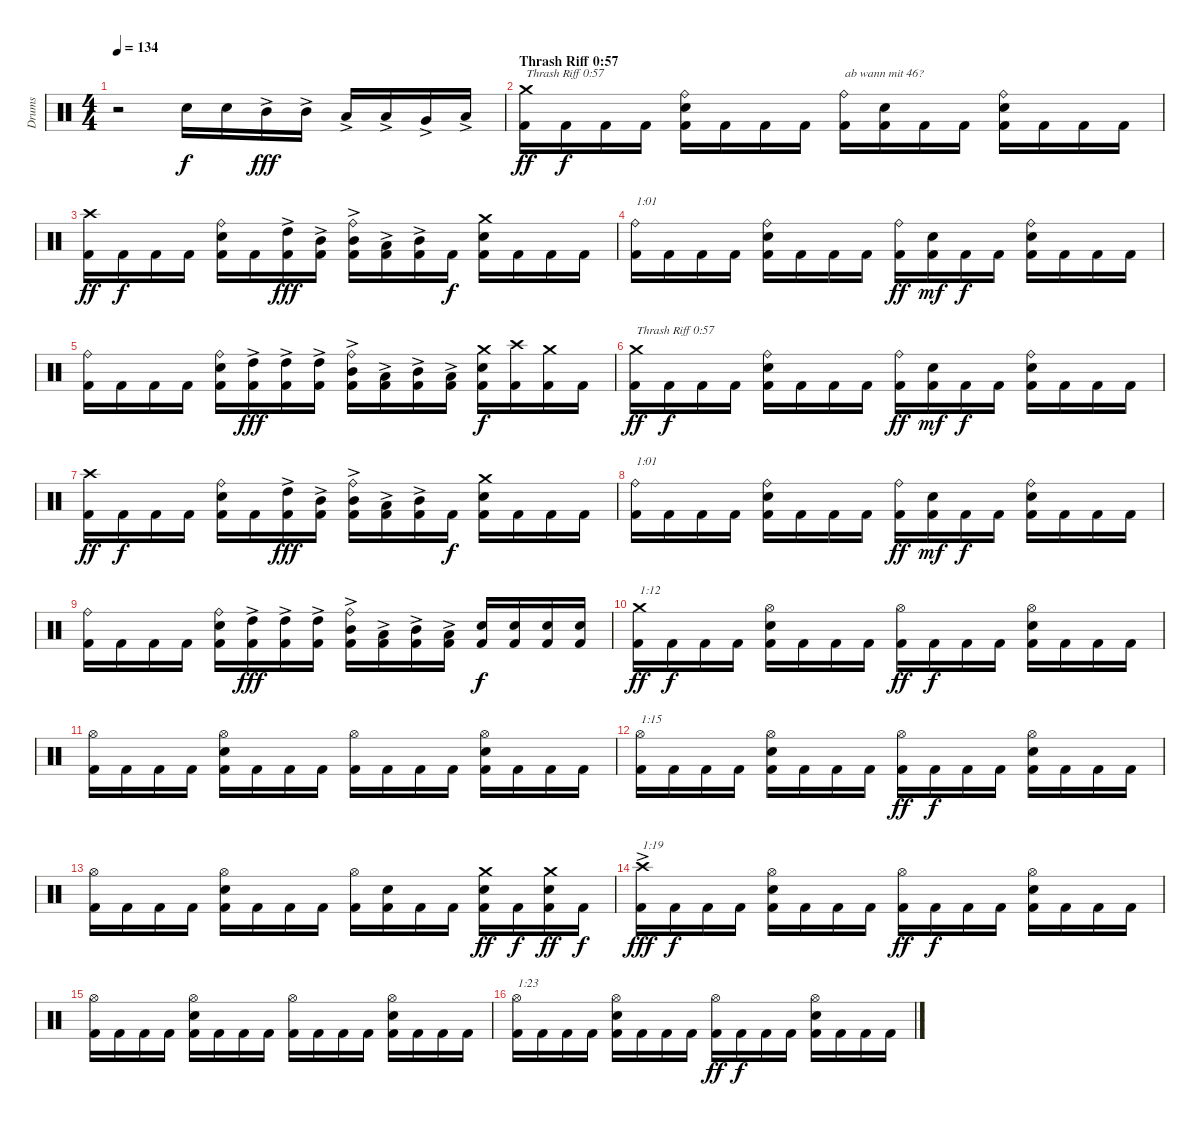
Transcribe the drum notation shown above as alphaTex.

\track ("Drums" "Drums") {instrument percussion}
\staff {score}
\articulation defaults
\ts (4 4)
\tempo 134
\clef neutral
\ks c
r.2{dy mf} "Electric Snare (hit)".16{dy f} "Electric Snare (hit)".16 "Mid Tom (hit)"{ac}.16{dy fff} "Mid Tom (hit)"{ac}.16 "Low Tom (hit)"{ac}.16 "Low Tom (hit)"{ac}.16 "Very Low Tom (hit)"{ac}.16 "Low Floor Tom (hit)"{ac}.16 |
\section ("" "Thrash Riff 0:57")
("Kick (hit) 2" "Crash medium (hit)").16{txt "Thrash Riff 0:57" dy ff} "Kick (hit) 2".16{dy f} "Kick (hit) 2".16 "Kick (hit) 2".16 ("Kick (hit) 2" "Electric Snare (hit)" "Ride (bell)").16 "Kick (hit) 2".16 "Kick (hit) 2".16 "Kick (hit) 2".16 ("Kick (hit) 2" "Ride (bell)").16{txt "ab wann mit 46?"} ("Kick (hit) 2" "Electric Snare (hit)").16 "Kick (hit) 2".16 "Kick (hit) 2".16 ("Kick (hit) 2" "Electric Snare (hit)" "Ride (bell)").16 "Kick (hit) 2".16 "Kick (hit) 2".16 "Kick (hit) 2".16 |
("Kick (hit) 2" "Crash high (hit)").16{dy ff} "Kick (hit) 2".16{dy f} "Kick (hit) 2".16 "Kick (hit) 2".16 ("Kick (hit) 2" "Electric Snare (hit)" "Ride (bell)").16 "Kick (hit) 2".16 ("Kick (hit) 2" "High Tom (hit)"{ac}).16{dy fff} ("Kick (hit) 2" "Mid Tom (hit)"{ac}).16 ("Kick (hit) 2" "Mid Tom (hit)"{ac} "Ride (bell)").16 ("Kick (hit) 2" "Low Tom (hit)"{ac}).16 ("Kick (hit) 2" "Mid Tom (hit)"{ac}).16 "Kick (hit) 2".16{dy f} ("Kick (hit) 2" "Electric Snare (hit)" "Crash medium (hit)").16 "Kick (hit) 2".16 "Kick (hit) 2".16 "Kick (hit) 2".16 |
("Kick (hit) 2" "Ride (bell)").16{txt "1:01"} "Kick (hit) 2".16 "Kick (hit) 2".16 "Kick (hit) 2".16 ("Kick (hit) 2" "Electric Snare (hit)" "Ride (bell)").16 "Kick (hit) 2".16 "Kick (hit) 2".16 "Kick (hit) 2".16 ("Kick (hit) 2" "Ride (bell)").16{dy ff} ("Kick (hit) 2" "Electric Snare (hit)").16{dy mf} "Kick (hit) 2".16{dy f} "Kick (hit) 2".16 ("Kick (hit) 2" "Electric Snare (hit)" "Ride (bell)").16 "Kick (hit) 2".16 "Kick (hit) 2".16 "Kick (hit) 2".16 |
("Kick (hit) 2" "Ride (bell)").16 "Kick (hit) 2".16 "Kick (hit) 2".16 "Kick (hit) 2".16 ("Kick (hit) 2" "Electric Snare (hit)" "Ride (bell)").16 ("Kick (hit) 2" "High Tom (hit)"{ac}).16{dy fff} ("Kick (hit) 2" "High Tom (hit)"{ac}).16 ("Kick (hit) 2" "High Tom (hit)"{ac}).16 ("Kick (hit) 2" "Mid Tom (hit)"{ac} "Ride (bell)").16 ("Kick (hit) 2" "Low Tom (hit)"{ac}).16 ("Kick (hit) 2" "Mid Tom (hit)"{ac}).16 ("Kick (hit) 2" "Low Tom (hit)"{ac}).16 ("Kick (hit) 2" "Electric Snare (hit)" "Crash medium (hit)").16{dy f} ("Kick (hit) 2" "Crash high (hit)").16 ("Kick (hit) 2" "Crash medium (hit)").16 "Kick (hit) 2".16 |
("Kick (hit) 2" "Crash medium (hit)").16{txt "Thrash Riff 0:57" dy ff} "Kick (hit) 2".16{dy f} "Kick (hit) 2".16 "Kick (hit) 2".16 ("Kick (hit) 2" "Electric Snare (hit)" "Ride (bell)").16 "Kick (hit) 2".16 "Kick (hit) 2".16 "Kick (hit) 2".16 ("Kick (hit) 2" "Ride (bell)").16{dy ff} ("Kick (hit) 2" "Electric Snare (hit)").16{dy mf} "Kick (hit) 2".16{dy f} "Kick (hit) 2".16 ("Kick (hit) 2" "Electric Snare (hit)" "Ride (bell)").16 "Kick (hit) 2".16 "Kick (hit) 2".16 "Kick (hit) 2".16 |
("Kick (hit) 2" "Crash high (hit)").16{dy ff} "Kick (hit) 2".16{dy f} "Kick (hit) 2".16 "Kick (hit) 2".16 ("Kick (hit) 2" "Electric Snare (hit)" "Ride (bell)").16 "Kick (hit) 2".16 ("Kick (hit) 2" "High Tom (hit)"{ac}).16{dy fff} ("Kick (hit) 2" "Mid Tom (hit)"{ac}).16 ("Kick (hit) 2" "Mid Tom (hit)"{ac} "Ride (bell)").16 ("Kick (hit) 2" "Low Tom (hit)"{ac}).16 ("Kick (hit) 2" "Mid Tom (hit)"{ac}).16 "Kick (hit) 2".16{dy f} ("Kick (hit) 2" "Electric Snare (hit)" "Crash medium (hit)").16 "Kick (hit) 2".16 "Kick (hit) 2".16 "Kick (hit) 2".16 |
("Kick (hit) 2" "Ride (bell)").16{txt "1:01"} "Kick (hit) 2".16 "Kick (hit) 2".16 "Kick (hit) 2".16 ("Kick (hit) 2" "Electric Snare (hit)" "Ride (bell)").16 "Kick (hit) 2".16 "Kick (hit) 2".16 "Kick (hit) 2".16 ("Kick (hit) 2" "Ride (bell)").16{dy ff} ("Kick (hit) 2" "Electric Snare (hit)").16{dy mf} "Kick (hit) 2".16{dy f} "Kick (hit) 2".16 ("Kick (hit) 2" "Electric Snare (hit)" "Ride (bell)").16 "Kick (hit) 2".16 "Kick (hit) 2".16 "Kick (hit) 2".16 |
("Kick (hit) 2" "Ride (bell)").16 "Kick (hit) 2".16 "Kick (hit) 2".16 "Kick (hit) 2".16 ("Kick (hit) 2" "Electric Snare (hit)" "Ride (bell)").16 ("Kick (hit) 2" "High Tom (hit)"{ac}).16{dy fff} ("Kick (hit) 2" "High Tom (hit)"{ac}).16 ("Kick (hit) 2" "High Tom (hit)"{ac}).16 ("Kick (hit) 2" "Mid Tom (hit)"{ac} "Ride (bell)").16 ("Kick (hit) 2" "Low Tom (hit)"{ac}).16 ("Kick (hit) 2" "Mid Tom (hit)"{ac}).16 ("Kick (hit) 2" "Low Tom (hit)"{ac}).16 ("Kick (hit) 2" "Electric Snare (hit)").16{dy f} ("Kick (hit) 2" "Electric Snare (hit)").16 ("Kick (hit) 2" "Electric Snare (hit)").16 ("Kick (hit) 2" "Electric Snare (hit)").16 |
("Kick (hit) 2" "Crash medium (hit)").16{txt "1:12" dy ff} "Kick (hit) 2".16{dy f} "Kick (hit) 2".16 "Kick (hit) 2".16 ("Kick (hit) 2" "Electric Snare (hit)" "Hi-Hat (open)").16 "Kick (hit) 2".16 "Kick (hit) 2".16 "Kick (hit) 2".16 ("Kick (hit) 2" "Hi-Hat (open)").16{dy ff} "Kick (hit) 2".16{dy f} "Kick (hit) 2".16 "Kick (hit) 2".16 ("Kick (hit) 2" "Electric Snare (hit)" "Hi-Hat (open)").16 "Kick (hit) 2".16 "Kick (hit) 2".16 "Kick (hit) 2".16 |
("Kick (hit) 2" "Hi-Hat (open)").16 "Kick (hit) 2".16 "Kick (hit) 2".16 "Kick (hit) 2".16 ("Kick (hit) 2" "Electric Snare (hit)" "Hi-Hat (open)").16 "Kick (hit) 2".16 "Kick (hit) 2".16 "Kick (hit) 2".16 ("Kick (hit) 2" "Hi-Hat (open)").16 "Kick (hit) 2".16 "Kick (hit) 2".16 "Kick (hit) 2".16 ("Kick (hit) 2" "Electric Snare (hit)" "Hi-Hat (open)").16 "Kick (hit) 2".16 "Kick (hit) 2".16 "Kick (hit) 2".16 |
("Kick (hit) 2" "Hi-Hat (open)").16{txt "1:15"} "Kick (hit) 2".16 "Kick (hit) 2".16 "Kick (hit) 2".16 ("Kick (hit) 2" "Electric Snare (hit)" "Hi-Hat (open)").16 "Kick (hit) 2".16 "Kick (hit) 2".16 "Kick (hit) 2".16 ("Kick (hit) 2" "Hi-Hat (open)").16{dy ff} "Kick (hit) 2".16{dy f} "Kick (hit) 2".16 "Kick (hit) 2".16 ("Kick (hit) 2" "Electric Snare (hit)" "Hi-Hat (open)").16 "Kick (hit) 2".16 "Kick (hit) 2".16 "Kick (hit) 2".16 |
("Kick (hit) 2" "Hi-Hat (open)").16 "Kick (hit) 2".16 "Kick (hit) 2".16 "Kick (hit) 2".16 ("Kick (hit) 2" "Electric Snare (hit)" "Hi-Hat (open)").16 "Kick (hit) 2".16 "Kick (hit) 2".16 "Kick (hit) 2".16 ("Kick (hit) 2" "Hi-Hat (open)").16 ("Kick (hit) 2" "Electric Snare (hit)").16 "Kick (hit) 2".16 "Kick (hit) 2".16 ("Kick (hit) 2" "Electric Snare (hit)" "Crash medium (hit)").16{dy ff} "Kick (hit) 2".16{dy f} ("Kick (hit) 2" "Electric Snare (hit)" "Crash medium (hit)").16{dy ff} "Kick (hit) 2".16{dy f} |
("Kick (hit) 2" "Crash high (hit)"{ac}).16{txt "1:19" dy fff} "Kick (hit) 2".16{dy f} "Kick (hit) 2".16 "Kick (hit) 2".16 ("Kick (hit) 2" "Electric Snare (hit)" "Hi-Hat (open)").16 "Kick (hit) 2".16 "Kick (hit) 2".16 "Kick (hit) 2".16 ("Kick (hit) 2" "Hi-Hat (open)").16{dy ff} "Kick (hit) 2".16{dy f} "Kick (hit) 2".16 "Kick (hit) 2".16 ("Kick (hit) 2" "Electric Snare (hit)" "Hi-Hat (open)").16 "Kick (hit) 2".16 "Kick (hit) 2".16 "Kick (hit) 2".16 |
("Kick (hit) 2" "Hi-Hat (open)").16 "Kick (hit) 2".16 "Kick (hit) 2".16 "Kick (hit) 2".16 ("Kick (hit) 2" "Electric Snare (hit)" "Hi-Hat (open)").16 "Kick (hit) 2".16 "Kick (hit) 2".16 "Kick (hit) 2".16 ("Kick (hit) 2" "Hi-Hat (open)").16 "Kick (hit) 2".16 "Kick (hit) 2".16 "Kick (hit) 2".16 ("Kick (hit) 2" "Electric Snare (hit)" "Hi-Hat (open)").16 "Kick (hit) 2".16 "Kick (hit) 2".16 "Kick (hit) 2".16 |
("Kick (hit) 2" "Hi-Hat (open)").16{txt "1:23"} "Kick (hit) 2".16 "Kick (hit) 2".16 "Kick (hit) 2".16 ("Kick (hit) 2" "Electric Snare (hit)" "Hi-Hat (open)").16 "Kick (hit) 2".16 "Kick (hit) 2".16 "Kick (hit) 2".16 ("Kick (hit) 2" "Hi-Hat (open)").16{dy ff} "Kick (hit) 2".16{dy f} "Kick (hit) 2".16 "Kick (hit) 2".16 ("Kick (hit) 2" "Electric Snare (hit)" "Hi-Hat (open)").16 "Kick (hit) 2".16 "Kick (hit) 2".16 "Kick (hit) 2".16
